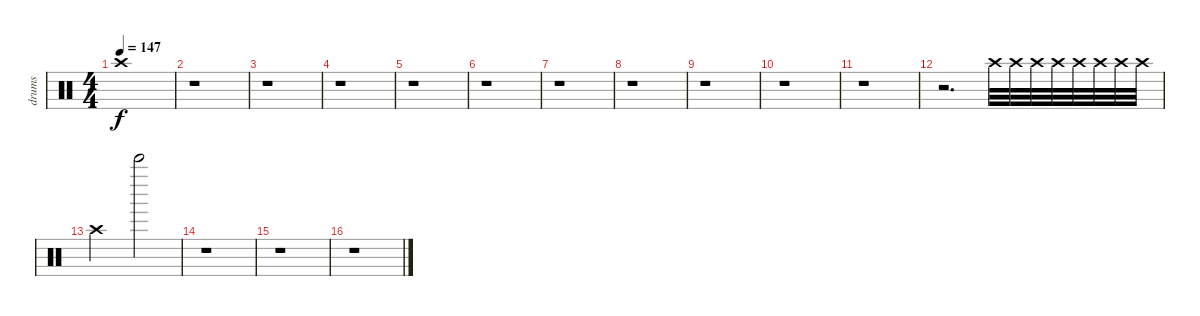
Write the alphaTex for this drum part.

\track ("drums" "drums") {instrument percussion}
\staff {score}
\articulation defaults
\ts (4 4)
\tempo 147
\clef neutral
\ks c "Crash high (hit)".1{dy f}
|
r.1 |
r.1 |
r.1 |
r.1 |
r.1 |
r.1 |
r.1 |
r.1 |
r.1 |
r.1 |
r.2{d volume 0} "Crash high (hit)".32{volume 16} "Crash high (hit)".32 "Crash high (hit)".32 "Crash high (hit)".32 "Crash high (hit)".32 "Crash high (hit)".32 "Crash high (hit)".32 "Crash high (hit)".32 |
"Crash high (hit)".2 "Bell Tree (hit)".2 |
r.1 |
r.1 |
r.1
